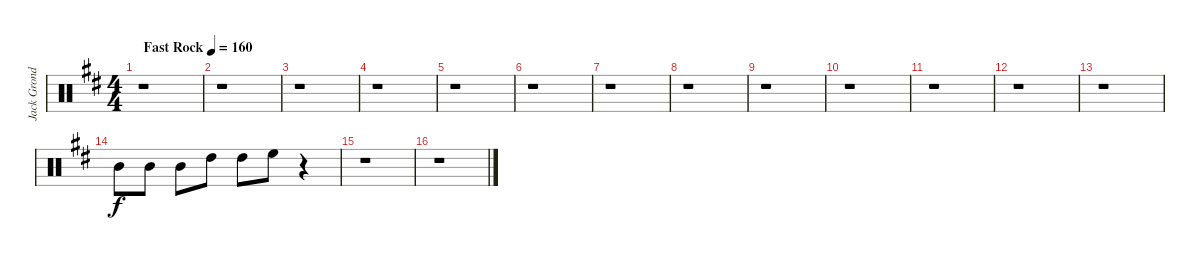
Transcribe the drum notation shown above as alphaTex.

\track ("Jack Grondin Drums" "Jack Grond") {instrument percussion}
\staff {score}
\articulation defaults
\ts (4 4)
\tempo (160 "Fast Rock")
\clef neutral
\ks d
r.1{dy f} |
r.1 |
r.1 |
r.1 |
r.1 |
r.1 |
r.1 |
r.1 |
r.1 |
r.1 |
r.1 |
r.1 |
r.1 |
"Mid Tom (hit)".8 "Mid Tom (hit)".8 "Mid Tom (hit)".8 "High Tom (hit)".8 "High Tom (hit)".8 "High Floor Tom (hit)".8 r.4 |
r.1 |
r.1
